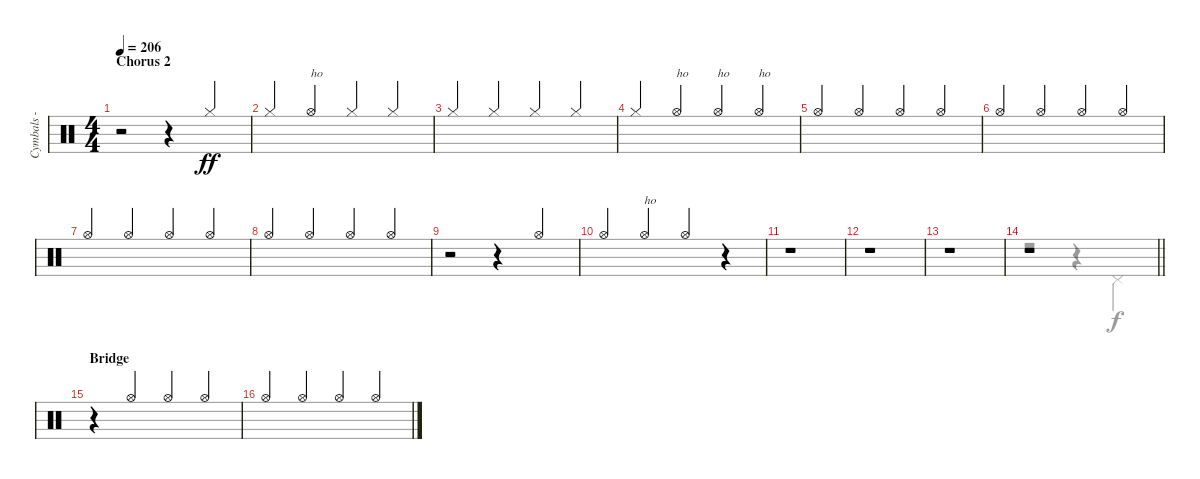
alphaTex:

\track ("Cymbals - hi-hat" "Cymbals - ") {instrument percussion}
\staff {score}
\articulation defaults
\voice
\ts (4 4)
\section ("" "Chorus 2")
\tempo 206
\clef neutral
\ks c
r.2{dy ff} r.4 "Hi-Hat (closed)".4{beam Up} |
"Hi-Hat (closed)".4{beam Up} "Hi-Hat (open)".4{txt "ho" beam Up} "Hi-Hat (closed)".4{beam Up} "Hi-Hat (closed)".4{beam Up} |
"Hi-Hat (closed)".4{beam Up} "Hi-Hat (closed)".4{beam Up} "Hi-Hat (closed)".4{beam Up} "Hi-Hat (closed)".4{beam Up} |
"Hi-Hat (closed)".4{beam Up} "Hi-Hat (open)".4{txt "ho" beam Up} "Hi-Hat (open)".4{txt "ho" beam Up} "Hi-Hat (open)".4{txt "ho" beam Up} |
"Hi-Hat (open)".4{beam Up} "Hi-Hat (open)".4{beam Up} "Hi-Hat (open)".4{beam Up} "Hi-Hat (open)".4{beam Up} |
"Hi-Hat (open)".4{beam Up} "Hi-Hat (open)".4{beam Up} "Hi-Hat (open)".4{beam Up} "Hi-Hat (open)".4{beam Up} |
"Hi-Hat (open)".4{beam Up} "Hi-Hat (open)".4{beam Up} "Hi-Hat (open)".4{beam Up} "Hi-Hat (open)".4{beam Up} |
"Hi-Hat (open)".4{beam Up} "Hi-Hat (open)".4{beam Up} "Hi-Hat (open)".4{beam Up} "Hi-Hat (open)".4{beam Up} |
r.2 r.4 "Hi-Hat (open)".4{beam Up} |
"Hi-Hat (open)".4{beam Up} "Hi-Hat (open)".4{txt "ho" beam Up} "Hi-Hat (open)".4{beam Up} r.4 |
r.1 |
r.1 |
r.1 |
\barLineRight lightlight
r.1 |
\section ("" "Bridge")
r.4 "Hi-Hat (open)".4{beam Up} "Hi-Hat (open)".4{beam Up} "Hi-Hat (open)".4{beam Up} |
"Hi-Hat (open)".4{beam Up} "Hi-Hat (open)".4{beam Up} "Hi-Hat (open)".4{beam Up} "Hi-Hat (open)".4{beam Up}
\voice
\clef neutral
\ottava regular
\simile none
\ks c
|
|
|
|
|
|
|
|
|
|
|
|
|
\barLineRight lightlight
r.2 r.4 "Pedal Hi-Hat (hit)".4{dy f} |
|
